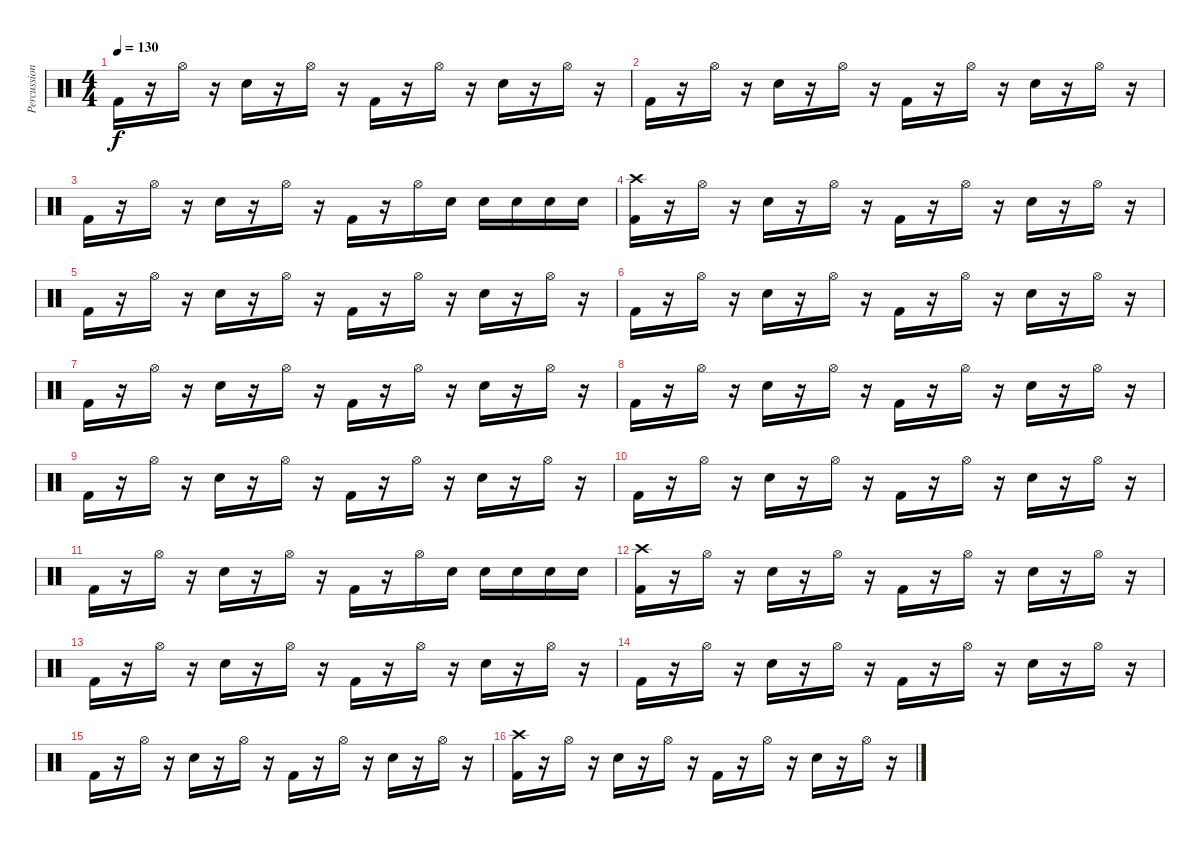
\track ("Percussion" "Percussion") {instrument percussion}
\staff {score}
\articulation defaults
\ts (4 4)
\tempo 130
\clef neutral
\ks c "Kick (hit) 2".16{dy f}
r.16 "Hi-Hat (open)".16 r.16 "Snare (hit) 2".16 r.16 "Hi-Hat (open)".16 r.16 "Kick (hit) 2".16 r.16 "Hi-Hat (open)".16 r.16 "Snare (hit) 2".16 r.16 "Hi-Hat (open)".16 r.16 |
"Kick (hit) 2".16 r.16 "Hi-Hat (open)".16 r.16 "Snare (hit) 2".16 r.16 "Hi-Hat (open)".16 r.16 "Kick (hit) 2".16 r.16 "Hi-Hat (open)".16 r.16 "Snare (hit) 2".16 r.16 "Hi-Hat (open)".16 r.16 |
"Kick (hit) 2".16 r.16 "Hi-Hat (open)".16 r.16 "Snare (hit) 2".16 r.16 "Hi-Hat (open)".16 r.16 "Kick (hit) 2".16 r.16 "Hi-Hat (open)".16 "Snare (hit) 2".16 "Snare (hit) 2".16 "Snare (hit) 2".16 "Snare (hit) 2".16 "Snare (hit) 2".16 |
("Crash high (hit)" "Kick (hit) 2").16 r.16 "Hi-Hat (open)".16 r.16 "Snare (hit) 2".16 r.16 "Hi-Hat (open)".16 r.16 "Kick (hit) 2".16 r.16 "Hi-Hat (open)".16 r.16 "Snare (hit) 2".16 r.16 "Hi-Hat (open)".16 r.16 |
"Kick (hit) 2".16 r.16 "Hi-Hat (open)".16 r.16 "Snare (hit) 2".16 r.16 "Hi-Hat (open)".16 r.16 "Kick (hit) 2".16 r.16 "Hi-Hat (open)".16 r.16 "Snare (hit) 2".16 r.16 "Hi-Hat (open)".16 r.16 |
"Kick (hit) 2".16 r.16 "Hi-Hat (open)".16 r.16 "Snare (hit) 2".16 r.16 "Hi-Hat (open)".16 r.16 "Kick (hit) 2".16 r.16 "Hi-Hat (open)".16 r.16 "Snare (hit) 2".16 r.16 "Hi-Hat (open)".16 r.16 |
"Kick (hit) 2".16 r.16 "Hi-Hat (open)".16 r.16 "Snare (hit) 2".16 r.16 "Hi-Hat (open)".16 r.16 "Kick (hit) 2".16 r.16 "Hi-Hat (open)".16 r.16 "Snare (hit) 2".16 r.16 "Hi-Hat (open)".16 r.16 |
"Kick (hit) 2".16 r.16 "Hi-Hat (open)".16 r.16 "Snare (hit) 2".16 r.16 "Hi-Hat (open)".16 r.16 "Kick (hit) 2".16 r.16 "Hi-Hat (open)".16 r.16 "Snare (hit) 2".16 r.16 "Hi-Hat (open)".16 r.16 |
"Kick (hit) 2".16 r.16 "Hi-Hat (open)".16 r.16 "Snare (hit) 2".16 r.16 "Hi-Hat (open)".16 r.16 "Kick (hit) 2".16 r.16 "Hi-Hat (open)".16 r.16 "Snare (hit) 2".16 r.16 "Hi-Hat (open)".16 r.16 |
"Kick (hit) 2".16 r.16 "Hi-Hat (open)".16 r.16 "Snare (hit) 2".16 r.16 "Hi-Hat (open)".16 r.16 "Kick (hit) 2".16 r.16 "Hi-Hat (open)".16 r.16 "Snare (hit) 2".16 r.16 "Hi-Hat (open)".16 r.16 |
"Kick (hit) 2".16 r.16 "Hi-Hat (open)".16 r.16 "Snare (hit) 2".16 r.16 "Hi-Hat (open)".16 r.16 "Kick (hit) 2".16 r.16 "Hi-Hat (open)".16 "Snare (hit) 2".16 "Snare (hit) 2".16 "Snare (hit) 2".16 "Snare (hit) 2".16 "Snare (hit) 2".16 |
("Crash high (hit)" "Kick (hit) 2").16 r.16 "Hi-Hat (open)".16 r.16 "Snare (hit) 2".16 r.16 "Hi-Hat (open)".16 r.16 "Kick (hit) 2".16 r.16 "Hi-Hat (open)".16 r.16 "Snare (hit) 2".16 r.16 "Hi-Hat (open)".16 r.16 |
"Kick (hit) 2".16 r.16 "Hi-Hat (open)".16 r.16 "Snare (hit) 2".16 r.16 "Hi-Hat (open)".16 r.16 "Kick (hit) 2".16 r.16 "Hi-Hat (open)".16 r.16 "Snare (hit) 2".16 r.16 "Hi-Hat (open)".16 r.16 |
"Kick (hit) 2".16 r.16 "Hi-Hat (open)".16 r.16 "Snare (hit) 2".16 r.16 "Hi-Hat (open)".16 r.16 "Kick (hit) 2".16 r.16 "Hi-Hat (open)".16 r.16 "Snare (hit) 2".16 r.16 "Hi-Hat (open)".16 r.16 |
"Kick (hit) 2".16 r.16 "Hi-Hat (open)".16 r.16 "Snare (hit) 2".16 r.16 "Hi-Hat (open)".16 r.16 "Kick (hit) 2".16 r.16 "Hi-Hat (open)".16 r.16 "Snare (hit) 2".16 r.16 "Hi-Hat (open)".16 r.16 |
("Crash high (hit)" "Kick (hit) 2").16 r.16 "Hi-Hat (open)".16 r.16 "Snare (hit) 2".16 r.16 "Hi-Hat (open)".16 r.16 "Kick (hit) 2".16 r.16 "Hi-Hat (open)".16 r.16 "Snare (hit) 2".16 r.16 "Hi-Hat (open)".16 r.16
